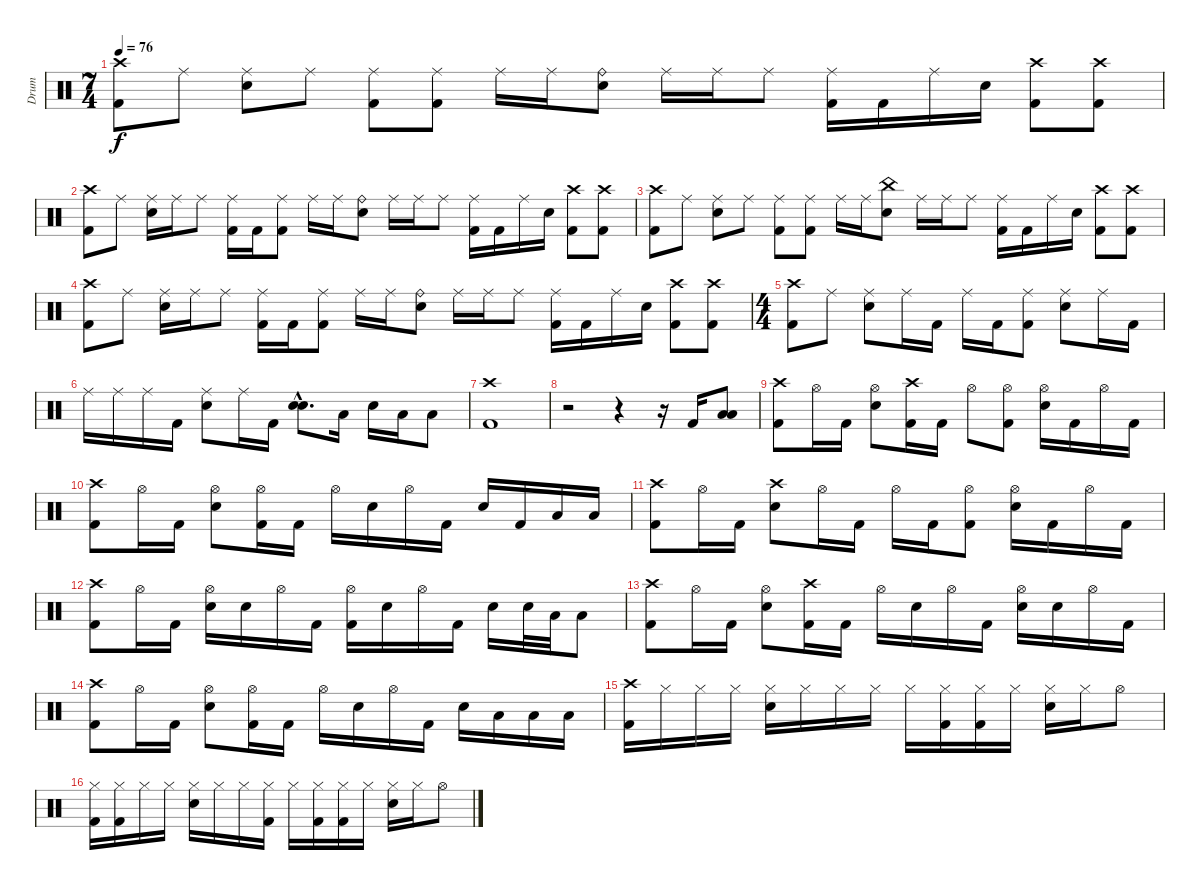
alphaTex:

\track ("Drum" "Drum") {instrument percussion}
\staff {score}
\articulation defaults
\ts (7 4)
\tempo 76
\clef neutral
\ks c
("Crash high (hit)" "Kick (hit) 2").8{dy f} "Ride (middle)".8 ("Ride (middle)" "Electric Snare (hit)").8 "Ride (middle)".8 ("Ride (middle)" "Kick (hit) 2").8 ("Ride (middle)" "Kick (hit) 2").8 "Ride (middle)".16 "Ride (middle)".16 ("Ride (bell)" "Electric Snare (hit)").8 "Ride (middle)".16 "Ride (middle)".16 "Ride (middle)".8 ("Ride (middle)" "Kick (hit) 2").16 "Kick (hit) 2".16 "Ride (middle)".16 "Electric Snare (hit)".16 ("Crash high (hit)" "Kick (hit) 2").8 ("Crash high (hit)" "Kick (hit) 2").8 |
("Crash high (hit)" "Kick (hit) 2").8 "Ride (middle)".8 ("Ride (middle)" "Electric Snare (hit)").16 "Ride (middle)".16 "Ride (middle)".8 ("Ride (middle)" "Kick (hit) 2").16 "Kick (hit) 2".16 ("Ride (middle)" "Kick (hit) 2").8 "Ride (middle)".16 "Ride (middle)".16 ("Ride (bell)" "Electric Snare (hit)").8 "Ride (middle)".16 "Ride (middle)".16 "Ride (middle)".8 ("Ride (middle)" "Kick (hit) 2").16 "Kick (hit) 2".16 "Ride (middle)".16 "Electric Snare (hit)".16 ("Crash high (hit)" "Kick (hit) 2").8 ("Crash high (hit)" "Kick (hit) 2").8 |
("Crash high (hit)" "Kick (hit) 2").8 "Ride (middle)".8 ("Ride (middle)" "Electric Snare (hit)").8 "Ride (middle)".8 ("Ride (middle)" "Kick (hit) 2").8 ("Ride (middle)" "Kick (hit) 2").8 "Ride (middle)".16 "Ride (middle)".16 ("China (hit)" "Electric Snare (hit)").8 "Ride (middle)".16 "Ride (middle)".16 "Ride (middle)".8 ("Ride (middle)" "Kick (hit) 2").16 "Kick (hit) 2".16 "Ride (middle)".16 "Electric Snare (hit)".16 ("Crash high (hit)" "Kick (hit) 2").8 ("Crash high (hit)" "Kick (hit) 2").8 |
("Crash high (hit)" "Kick (hit) 2").8 "Ride (middle)".8 ("Ride (middle)" "Electric Snare (hit)").16 "Ride (middle)".16 "Ride (middle)".8 ("Ride (middle)" "Kick (hit) 2").16 "Kick (hit) 2".16 ("Ride (middle)" "Kick (hit) 2").8 "Ride (middle)".16 "Ride (middle)".16 ("Ride (bell)" "Electric Snare (hit)").8 "Ride (middle)".16 "Ride (middle)".16 "Ride (middle)".8 ("Ride (middle)" "Kick (hit) 2").16 "Kick (hit) 2".16 "Ride (middle)".16 "Electric Snare (hit)".16 ("Crash high (hit)" "Kick (hit) 2").8 ("Crash high (hit)" "Kick (hit) 2").8 |
\ts (4 4)
("Crash high (hit)" "Kick (hit) 2").8 "Ride (middle)".8 ("Ride (middle)" "Electric Snare (hit)").8 "Ride (middle)".16 "Kick (hit) 2".16 "Ride (middle)".16 "Kick (hit) 2".16 ("Ride (middle)" "Kick (hit) 2").8 ("Ride (middle)" "Electric Snare (hit)").8 "Ride (middle)".16 "Kick (hit) 2".16 |
"Ride (middle)".16 "Ride (middle)".16 "Ride (middle)".16 "Kick (hit) 2".16 ("Ride (middle)" "Electric Snare (hit)").8 "Ride (middle)".16 "Kick (hit) 2".16 ("Electric Snare (hit)"{hac} "Electric Snare (hit)"{hac}).8{d} "Low Floor Tom (hit)".16 "Electric Snare (hit)".16 "Low Tom (hit)".16 "Low Tom (hit)".8 |
("Crash high (hit)" "Kick (hit) 2").1 |
r.2 r.4 r.16 "Kick (hit) 2".16 ("Low Tom (hit)" "Low Floor Tom (hit)").8 |
("Crash high (hit)" "Kick (hit) 2").8 "Hi-Hat (open)".16 "Kick (hit) 2".16 ("Hi-Hat (open)" "Electric Snare (hit)").8 ("Crash high (hit)" "Kick (hit) 2").16 "Kick (hit) 2".16 "Hi-Hat (open)".8 ("Hi-Hat (open)" "Kick (hit) 2").8 ("Hi-Hat (open)" "Electric Snare (hit)").16 "Kick (hit) 2".16 "Hi-Hat (open)".16 "Kick (hit) 2".16 |
("Crash high (hit)" "Kick (hit) 2").8 "Hi-Hat (open)".16 "Kick (hit) 2".16 ("Hi-Hat (open)" "Electric Snare (hit)").8 ("Hi-Hat (open)" "Kick (hit) 2").16 "Kick (hit) 2".16 "Hi-Hat (open)".16 "Electric Snare (hit)".16 "Hi-Hat (open)".16 "Kick (hit) 2".16 "Electric Snare (hit)".16 "Kick (hit) 2".16 "Low Floor Tom (hit)".16 "Low Tom (hit)".16 |
("Crash high (hit)" "Kick (hit) 2").8 "Hi-Hat (open)".16 "Kick (hit) 2".16 ("Crash high (hit)" "Electric Snare (hit)").8 "Hi-Hat (open)".16 "Kick (hit) 2".16 "Hi-Hat (open)".16 "Kick (hit) 2".16 ("Hi-Hat (open)" "Kick (hit) 2").8 ("Hi-Hat (open)" "Electric Snare (hit)").16 "Kick (hit) 2".16 "Hi-Hat (open)".16 "Kick (hit) 2".16 |
("Crash high (hit)" "Kick (hit) 2").8 "Hi-Hat (open)".16 "Kick (hit) 2".16 ("Hi-Hat (open)" "Electric Snare (hit)").16 "Electric Snare (hit)".16 "Hi-Hat (open)".16 "Kick (hit) 2".16 ("Hi-Hat (open)" "Kick (hit) 2").16 "Electric Snare (hit)".16 "Hi-Hat (open)".16 "Kick (hit) 2".16 "Electric Snare (hit)".16 "Electric Snare (hit)".32 "Low Floor Tom (hit)".32 "Low Tom (hit)".8 |
("Crash high (hit)" "Kick (hit) 2").8 "Hi-Hat (open)".16 "Kick (hit) 2".16 ("Hi-Hat (open)" "Electric Snare (hit)").8 ("Crash high (hit)" "Kick (hit) 2").16 "Kick (hit) 2".16 "Hi-Hat (open)".16 "Electric Snare (hit)".16 "Hi-Hat (open)".16 "Kick (hit) 2".16 ("Hi-Hat (open)" "Electric Snare (hit)").16 "Electric Snare (hit)".16 "Hi-Hat (open)".16 "Kick (hit) 2".16 |
("Crash high (hit)" "Kick (hit) 2").8 "Hi-Hat (open)".16 "Kick (hit) 2".16 ("Hi-Hat (open)" "Electric Snare (hit)").8 ("Hi-Hat (open)" "Kick (hit) 2").16 "Kick (hit) 2".16 "Hi-Hat (open)".16 "Electric Snare (hit)".16 "Hi-Hat (open)".16 "Kick (hit) 2".16 "Electric Snare (hit)".16 "Low Floor Tom (hit)".16 "Low Floor Tom (hit)".16 "Low Tom (hit)".16 |
("Crash high (hit)" "Kick (hit) 2").16 "Hi-Hat (closed)".16 "Hi-Hat (closed)".16 "Hi-Hat (closed)".16 ("Hi-Hat (closed)" "Electric Snare (hit)").16 "Hi-Hat (closed)".16 "Hi-Hat (closed)".16 "Hi-Hat (closed)".16 "Hi-Hat (closed)".16 ("Hi-Hat (closed)" "Kick (hit) 2").16 ("Hi-Hat (closed)" "Kick (hit) 2").16 "Hi-Hat (closed)".16 ("Hi-Hat (closed)" "Electric Snare (hit)").16 "Hi-Hat (closed)".16 "Hi-Hat (open)".8 |
("Hi-Hat (closed)" "Kick (hit) 2").16 ("Hi-Hat (closed)" "Kick (hit) 2").16 "Hi-Hat (closed)".16 "Hi-Hat (closed)".16 ("Hi-Hat (closed)" "Electric Snare (hit)").16 "Hi-Hat (closed)".16 "Hi-Hat (closed)".16 ("Hi-Hat (closed)" "Kick (hit) 2").16 "Hi-Hat (closed)".16 ("Hi-Hat (closed)" "Kick (hit) 2").16 ("Hi-Hat (closed)" "Kick (hit) 2").16 "Hi-Hat (closed)".16 ("Hi-Hat (closed)" "Electric Snare (hit)").16 "Hi-Hat (closed)".16 "Hi-Hat (open)".8
